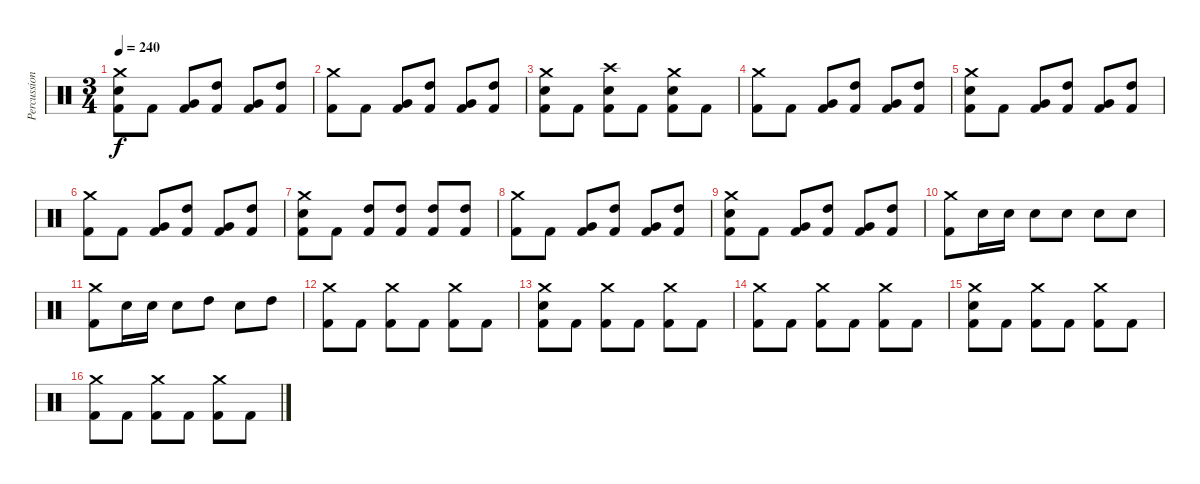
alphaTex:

\track ("Percussion" "Percussion") {instrument percussion}
\staff {score}
\articulation defaults
\ts (3 4)
\tempo 240
\clef neutral
\ks c
("Crash medium (hit)" "Electric Snare (hit)" "Kick (hit) 2").8{dy f} "Kick (hit) 2".8 ("Very Low Tom (hit)" "Kick (hit) 2").8 ("High Tom (hit)" "Kick (hit) 2").8 ("Very Low Tom (hit)" "Kick (hit) 2").8 ("High Tom (hit)" "Kick (hit) 2").8 |
("Crash medium (hit)" "Kick (hit) 2").8 "Kick (hit) 2".8 ("Very Low Tom (hit)" "Kick (hit) 2").8 ("High Tom (hit)" "Kick (hit) 2").8 ("Very Low Tom (hit)" "Kick (hit) 2").8 ("High Tom (hit)" "Kick (hit) 2").8 |
("Crash medium (hit)" "Electric Snare (hit)" "Kick (hit) 2").8 "Kick (hit) 2".8 ("Crash high (hit)" "Electric Snare (hit)" "Kick (hit) 2").8 "Kick (hit) 2".8 ("Crash medium (hit)" "Electric Snare (hit)" "Kick (hit) 2").8 "Kick (hit) 2".8 |
("Crash medium (hit)" "Kick (hit) 2").8 "Kick (hit) 2".8 ("Very Low Tom (hit)" "Kick (hit) 2").8 ("High Tom (hit)" "Kick (hit) 2").8 ("Very Low Tom (hit)" "Kick (hit) 2").8 ("High Tom (hit)" "Kick (hit) 2").8 |
("Crash medium (hit)" "Electric Snare (hit)" "Kick (hit) 2").8 "Kick (hit) 2".8 ("Very Low Tom (hit)" "Kick (hit) 2").8 ("High Tom (hit)" "Kick (hit) 2").8 ("Very Low Tom (hit)" "Kick (hit) 2").8 ("High Tom (hit)" "Kick (hit) 2").8 |
("Crash medium (hit)" "Kick (hit) 2").8 "Kick (hit) 2".8 ("Very Low Tom (hit)" "Kick (hit) 2").8 ("High Tom (hit)" "Kick (hit) 2").8 ("Very Low Tom (hit)" "Kick (hit) 2").8 ("High Tom (hit)" "Kick (hit) 2").8 |
("Crash medium (hit)" "Electric Snare (hit)" "Kick (hit) 2").8 "Kick (hit) 2".8 ("High Tom (hit)" "Kick (hit) 2").8 ("High Tom (hit)" "Kick (hit) 2").8 ("High Tom (hit)" "Kick (hit) 2").8 ("High Tom (hit)" "Kick (hit) 2").8 |
("Crash medium (hit)" "Kick (hit) 2").8 "Kick (hit) 2".8 ("Very Low Tom (hit)" "Kick (hit) 2").8 ("High Tom (hit)" "Kick (hit) 2").8 ("Very Low Tom (hit)" "Kick (hit) 2").8 ("High Tom (hit)" "Kick (hit) 2").8 |
("Crash medium (hit)" "Electric Snare (hit)" "Kick (hit) 2").8 "Kick (hit) 2".8 ("Very Low Tom (hit)" "Kick (hit) 2").8 ("High Tom (hit)" "Kick (hit) 2").8 ("Very Low Tom (hit)" "Kick (hit) 2").8 ("High Tom (hit)" "Kick (hit) 2").8 |
("Crash medium (hit)" "Kick (hit) 2").8 "Electric Snare (hit)".16 "Electric Snare (hit)".16 "Electric Snare (hit)".8 "Electric Snare (hit)".8 "Electric Snare (hit)".8 "Electric Snare (hit)".8 |
("Crash medium (hit)" "Kick (hit) 2").8 "Electric Snare (hit)".16 "Electric Snare (hit)".16 "Electric Snare (hit)".8 "High Tom (hit)".8 "Electric Snare (hit)".8 "High Tom (hit)".8 |
("Crash medium (hit)" "Kick (hit) 2").8 "Kick (hit) 2".8 ("Crash medium (hit)" "Kick (hit) 2").8 "Kick (hit) 2".8 ("Crash medium (hit)" "Kick (hit) 2").8 "Kick (hit) 2".8 |
("Crash medium (hit)" "Electric Snare (hit)" "Kick (hit) 2").8 "Kick (hit) 2".8 ("Crash medium (hit)" "Kick (hit) 2").8 "Kick (hit) 2".8 ("Crash medium (hit)" "Kick (hit) 2").8 "Kick (hit) 2".8 |
("Crash medium (hit)" "Kick (hit) 2").8 "Kick (hit) 2".8 ("Crash medium (hit)" "Kick (hit) 2").8 "Kick (hit) 2".8 ("Crash medium (hit)" "Kick (hit) 2").8 "Kick (hit) 2".8 |
("Crash medium (hit)" "Electric Snare (hit)" "Kick (hit) 2").8 "Kick (hit) 2".8 ("Crash medium (hit)" "Kick (hit) 2").8 "Kick (hit) 2".8 ("Crash medium (hit)" "Kick (hit) 2").8 "Kick (hit) 2".8 |
("Crash medium (hit)" "Kick (hit) 2").8 "Kick (hit) 2".8 ("Crash medium (hit)" "Kick (hit) 2").8 "Kick (hit) 2".8 ("Crash medium (hit)" "Kick (hit) 2").8 "Kick (hit) 2".8
